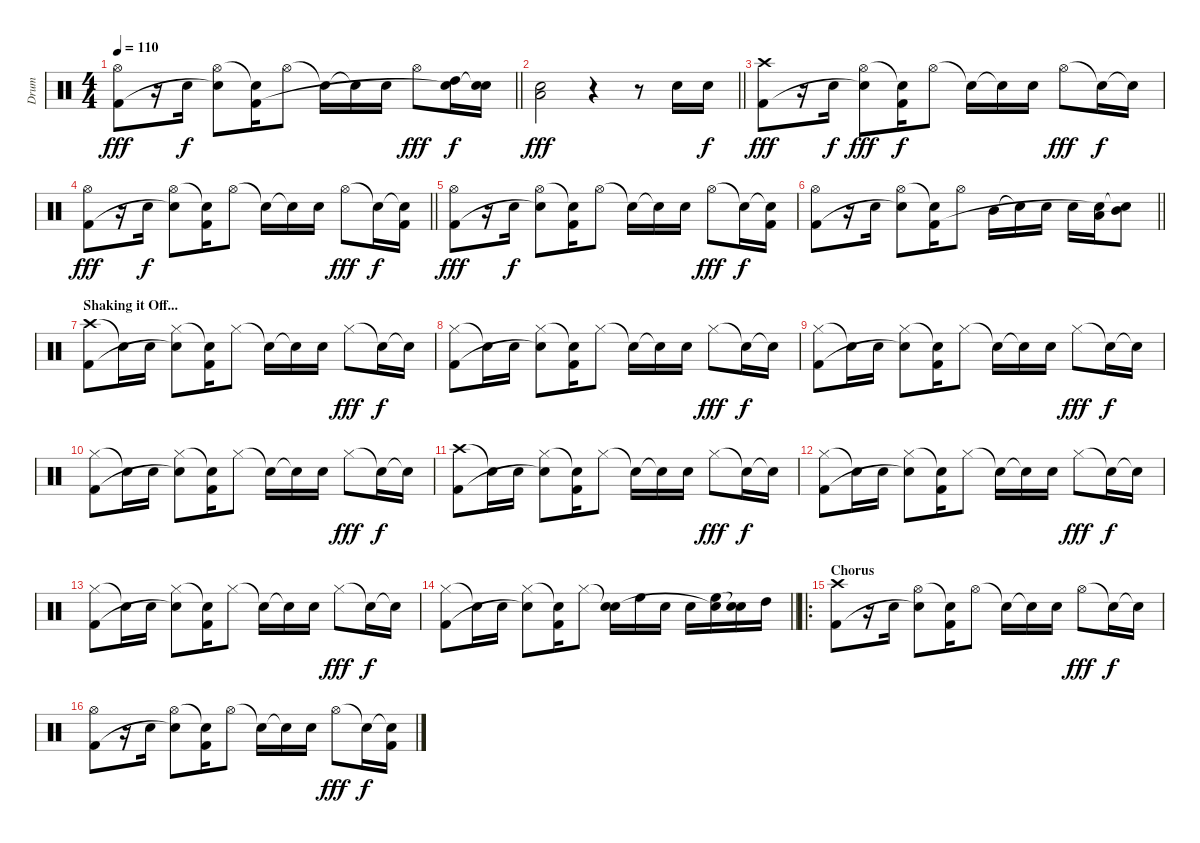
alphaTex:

\track ("Drum" "Drum") {instrument percussion}
\staff {score}
\articulation defaults
\ts (4 4)
\tempo 110
\clef neutral
\barLineRight lightlight
\ks c
("Hi-Hat (open)" "Kick (hit) 2").8{dy fff} r.16 "Electric Snare (hit)".16{dy f} ("Hi-Hat (open)" "Electric Snare (hit)"{t}).8 ("Snare (hit)"{t} "Kick (hit) 2").16 "Hi-Hat (open)".8 "Snare (hit)"{t}.16 "Snare (hit)"{t}.16 "Electric Snare (hit)".16 "Hi-Hat (open)".8{dy fff} ("High Tom (hit)" "Snare (hit)"{t}).16{dy f} ("Electric Snare (hit)" "Snare (hit)"{t}).16 |
\barLineRight lightlight
("Electric Snare (hit)" "Low Tom (hit)").2{dy fff} r.4 r.8 "Electric Snare (hit)".16 "Electric Snare (hit)".16{dy f} |
("Crash high (hit)" "Kick (hit) 2").8{dy fff} r.16 "Electric Snare (hit)".16{dy f} ("Hi-Hat (open)" "Electric Snare (hit)"{t}).8{dy fff} ("Snare (hit)"{t} "Kick (hit) 2").16{dy f} "Hi-Hat (open)".8 "Snare (hit)"{t}.16 "Snare (hit)"{t}.16 "Electric Snare (hit)".16 "Hi-Hat (open)".8{dy fff} "Snare (hit)"{t}.16{dy f} "Snare (hit)"{t}.16 |
\barLineRight lightlight
("Hi-Hat (open)" "Kick (hit) 2").8{dy fff} r.16 "Electric Snare (hit)".16{dy f} ("Hi-Hat (open)" "Electric Snare (hit)"{t}).8 ("Snare (hit)"{t} "Kick (hit) 2").16 "Hi-Hat (open)".8 "Snare (hit)"{t}.16 "Snare (hit)"{t}.16 "Electric Snare (hit)".16 "Hi-Hat (open)".8{dy fff} "Snare (hit)"{t}.16{dy f} ("Snare (hit)"{t} "Kick (hit) 2").16 |
("Hi-Hat (open)" "Kick (hit) 2").8{dy fff} r.16 "Electric Snare (hit)".16{dy f} ("Hi-Hat (open)" "Electric Snare (hit)"{t}).8 ("Snare (hit)"{t} "Kick (hit) 2").16 "Hi-Hat (open)".8 "Snare (hit)"{t}.16 "Snare (hit)"{t}.16 "Electric Snare (hit)".16 "Hi-Hat (open)".8{dy fff} "Snare (hit)"{t}.16{dy f} ("Snare (hit)"{t} "Kick (hit) 2").16 |
\barLineRight lightlight
("Hi-Hat (open)" "Kick (hit) 2").8 r.16 "Electric Snare (hit)".16 ("Hi-Hat (open)" "Electric Snare (hit)"{t}).8 ("Snare (hit)"{t} "Kick (hit) 2").16 "Hi-Hat (open)".8 "Mid Tom (hit)".16 "Snare (hit)"{t}.16 "Electric Snare (hit)".16 "Electric Snare (hit)".16 ("Low Tom (hit)" "Snare (hit)"{t}).16 ("Mid Tom (hit)" "Snare (hit)"{t}).8 |
\section ("" "Shaking it Off...")
("Crash high (hit)" "Kick (hit) 2").8 "Snare (hit)"{t}.16 "Electric Snare (hit)".16 ("Hi-Hat (closed)" "Electric Snare (hit)"{t}).8 ("Snare (hit)"{t} "Kick (hit) 2").16 "Hi-Hat (closed)".8 "Snare (hit)"{t}.16 "Snare (hit)"{t}.16 "Electric Snare (hit)".16 "Hi-Hat (closed)".8{dy fff} "Snare (hit)"{t}.16{dy f} "Snare (hit)"{t}.16 |
("Hi-Hat (closed)" "Kick (hit) 2").8 "Snare (hit)"{t}.16 "Electric Snare (hit)".16 ("Hi-Hat (closed)" "Electric Snare (hit)"{t}).8 ("Snare (hit)"{t} "Kick (hit) 2").16 "Hi-Hat (closed)".8 "Snare (hit)"{t}.16 "Snare (hit)"{t}.16 "Electric Snare (hit)".16 "Hi-Hat (closed)".8{dy fff} "Snare (hit)"{t}.16{dy f} "Snare (hit)"{t}.16 |
("Hi-Hat (closed)" "Kick (hit) 2").8 "Snare (hit)"{t}.16 "Electric Snare (hit)".16 ("Hi-Hat (closed)" "Electric Snare (hit)"{t}).8 ("Snare (hit)"{t} "Kick (hit) 2").16 "Hi-Hat (closed)".8 "Snare (hit)"{t}.16 "Snare (hit)"{t}.16 "Electric Snare (hit)".16 "Hi-Hat (closed)".8{dy fff} "Snare (hit)"{t}.16{dy f} "Snare (hit)"{t}.16 |
("Hi-Hat (closed)" "Kick (hit) 2").8 "Snare (hit)"{t}.16 "Electric Snare (hit)".16 ("Hi-Hat (closed)" "Electric Snare (hit)"{t}).8 ("Snare (hit)"{t} "Kick (hit) 2").16 "Hi-Hat (closed)".8 "Snare (hit)"{t}.16 "Snare (hit)"{t}.16 "Electric Snare (hit)".16 "Hi-Hat (closed)".8{dy fff} "Snare (hit)"{t}.16{dy f} "Snare (hit)"{t}.16 |
("Crash high (hit)" "Kick (hit) 2").8 "Snare (hit)"{t}.16 "Electric Snare (hit)".16 ("Hi-Hat (closed)" "Electric Snare (hit)"{t}).8 ("Snare (hit)"{t} "Kick (hit) 2").16 "Hi-Hat (closed)".8 "Snare (hit)"{t}.16 "Snare (hit)"{t}.16 "Electric Snare (hit)".16 "Hi-Hat (closed)".8{dy fff} "Snare (hit)"{t}.16{dy f} "Snare (hit)"{t}.16 |
("Hi-Hat (closed)" "Kick (hit) 2").8 "Snare (hit)"{t}.16 "Electric Snare (hit)".16 ("Hi-Hat (closed)" "Electric Snare (hit)"{t}).8 ("Snare (hit)"{t} "Kick (hit) 2").16 "Hi-Hat (closed)".8 "Snare (hit)"{t}.16 "Snare (hit)"{t}.16 "Electric Snare (hit)".16 "Hi-Hat (closed)".8{dy fff} "Snare (hit)"{t}.16{dy f} "Snare (hit)"{t}.16 |
("Hi-Hat (closed)" "Kick (hit) 2").8 "Snare (hit)"{t}.16 "Electric Snare (hit)".16 ("Hi-Hat (closed)" "Electric Snare (hit)"{t}).8 ("Snare (hit)"{t} "Kick (hit) 2").16 "Hi-Hat (closed)".8 "Snare (hit)"{t}.16 "Snare (hit)"{t}.16 "Electric Snare (hit)".16 "Hi-Hat (closed)".8{dy fff} "Snare (hit)"{t}.16{dy f} "Snare (hit)"{t}.16 |
\barLineRight lightlight
("Hi-Hat (closed)" "Kick (hit) 2").8 "Snare (hit)"{t}.16 "Electric Snare (hit)".16 ("Hi-Hat (closed)" "Electric Snare (hit)"{t}).8 ("Snare (hit)"{t} "Kick (hit) 2").16 "Hi-Hat (closed)".8 ("Snare (hit)"{t} "Electric Snare (hit)").16 "High Floor Tom (hit)".16 "Electric Snare (hit)".16 "Electric Snare (hit)".16 ("High Floor Tom (hit)" "Snare (hit)"{t}).16 ("Snare (hit)"{t} "Electric Snare (hit)").16 "High Tom (hit)".16 |
\ro
\section ("" "Chorus")
("Crash high (hit)" "Kick (hit) 2").8 r.16 "Electric Snare (hit)".16 ("Hi-Hat (open)" "Electric Snare (hit)"{t}).8 ("Snare (hit)"{t} "Kick (hit) 2").16 "Hi-Hat (open)".8 "Snare (hit)"{t}.16 "Snare (hit)"{t}.16 "Electric Snare (hit)".16 "Hi-Hat (open)".8{dy fff} "Snare (hit)"{t}.16{dy f} "Snare (hit)"{t}.16 |
("Hi-Hat (open)" "Kick (hit) 2").8 r.16 "Electric Snare (hit)".16 ("Hi-Hat (open)" "Electric Snare (hit)"{t}).8 ("Snare (hit)"{t} "Kick (hit) 2").16 "Hi-Hat (open)".8 "Snare (hit)"{t}.16 "Snare (hit)"{t}.16 "Electric Snare (hit)".16 "Hi-Hat (open)".8{dy fff} "Snare (hit)"{t}.16{dy f} ("Snare (hit)"{t} "Kick (hit) 2").16
